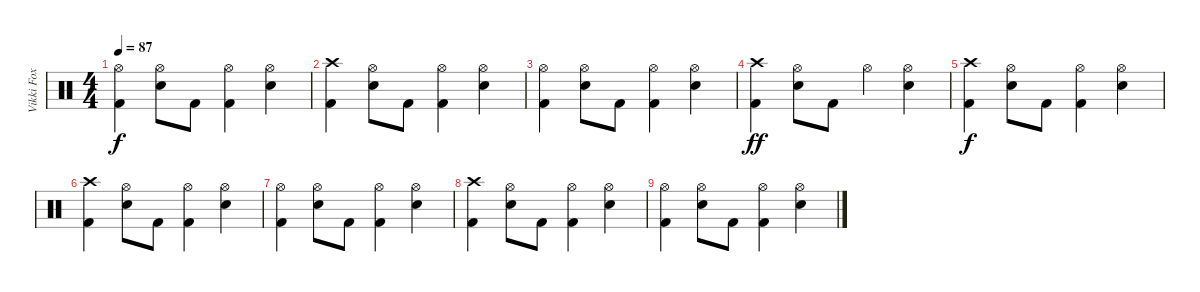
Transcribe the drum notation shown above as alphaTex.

\track ("Vikki Fox" "Vikki Fox") {instrument percussion}
\staff {score}
\articulation defaults
\ts (4 4)
\tempo 87
\clef neutral
\ks c
("Hi-Hat (open)" "Kick (hit) 2").4{dy f} ("Hi-Hat (open)" "Snare (hit) 2").8 "Kick (hit) 2".8 ("Hi-Hat (open)" "Kick (hit) 2").4 ("Hi-Hat (open)" "Snare (hit) 2").4 |
("Crash high (hit)" "Kick (hit) 2").4 ("Hi-Hat (open)" "Snare (hit) 2").8 "Kick (hit) 2".8 ("Hi-Hat (open)" "Kick (hit) 2").4 ("Hi-Hat (open)" "Snare (hit) 2").4 |
("Hi-Hat (open)" "Kick (hit) 2").4 ("Hi-Hat (open)" "Snare (hit) 2").8 "Kick (hit) 2".8 ("Hi-Hat (open)" "Kick (hit) 2").4 ("Hi-Hat (open)" "Snare (hit) 2").4 |
("Crash high (hit)" "Kick (hit) 2").4{dy ff} ("Hi-Hat (open)" "Snare (hit) 2").8 "Kick (hit) 2".8 "Hi-Hat (open)".4 ("Hi-Hat (open)" "Snare (hit) 2").4 |
("Crash high (hit)" "Kick (hit) 2").4{dy f volume 0} ("Hi-Hat (open)" "Snare (hit) 2").8 "Kick (hit) 2".8 ("Hi-Hat (open)" "Kick (hit) 2").4 ("Hi-Hat (open)" "Snare (hit) 2").4 |
("Crash high (hit)" "Kick (hit) 2").4 ("Hi-Hat (open)" "Snare (hit) 2").8 "Kick (hit) 2".8 ("Hi-Hat (open)" "Kick (hit) 2").4 ("Hi-Hat (open)" "Snare (hit) 2").4 |
("Hi-Hat (open)" "Kick (hit) 2").4 ("Hi-Hat (open)" "Snare (hit) 2").8 "Kick (hit) 2".8 ("Hi-Hat (open)" "Kick (hit) 2").4 ("Hi-Hat (open)" "Snare (hit) 2").4 |
("Crash high (hit)" "Kick (hit) 2").4 ("Hi-Hat (open)" "Snare (hit) 2").8 "Kick (hit) 2".8 ("Hi-Hat (open)" "Kick (hit) 2").4 ("Hi-Hat (open)" "Snare (hit) 2").4 |
("Hi-Hat (open)" "Kick (hit) 2").4 ("Hi-Hat (open)" "Snare (hit) 2").8 "Kick (hit) 2".8 ("Hi-Hat (open)" "Kick (hit) 2").4 ("Hi-Hat (open)" "Snare (hit) 2").4
